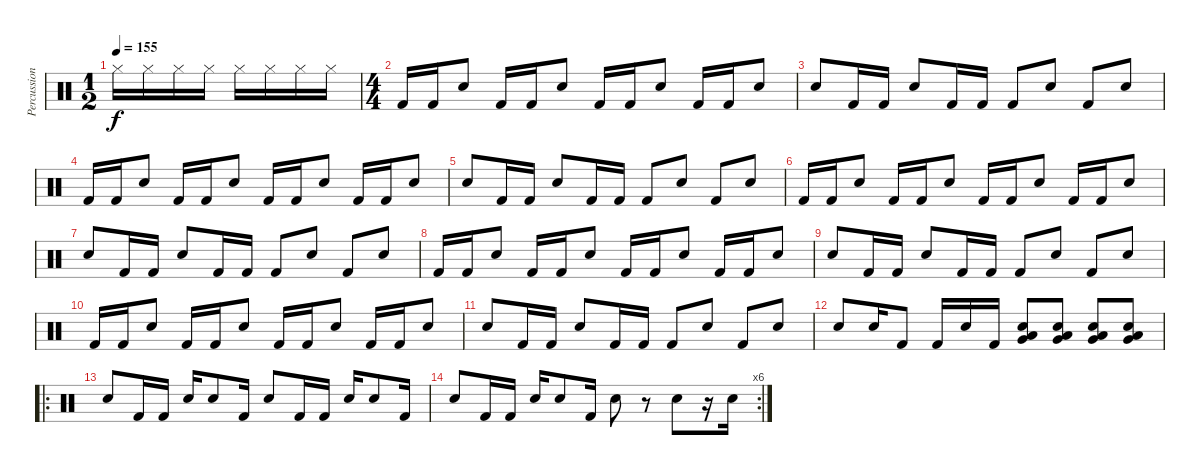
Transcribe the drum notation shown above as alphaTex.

\track ("Percussion" "Percussion") {instrument percussion}
\staff {score}
\articulation defaults
\ts (1 2)
\tempo 155
\clef neutral
\ks c "Hi-Hat (closed)".16{dy f} "Hi-Hat (closed)".16 "Hi-Hat (closed)".16 "Hi-Hat (closed)".16 "Hi-Hat (closed)".16 "Hi-Hat (closed)".16 "Hi-Hat (closed)".16 "Hi-Hat (closed)".16
|
\ts (4 4)
"Kick (hit) 2".16 "Kick (hit) 2".16 "Snare (hit) 2".8 "Kick (hit) 2".16 "Kick (hit) 2".16 "Snare (hit) 2".8 "Kick (hit) 2".16 "Kick (hit) 2".16 "Snare (hit) 2".8 "Kick (hit) 2".16 "Kick (hit) 2".16 "Snare (hit) 2".8 |
"Snare (hit) 2".8 "Kick (hit) 2".16 "Kick (hit) 2".16 "Snare (hit) 2".8 "Kick (hit) 2".16 "Kick (hit) 2".16 "Kick (hit) 2".8 "Snare (hit) 2".8 "Kick (hit) 2".8 "Snare (hit) 2".8 |
"Kick (hit) 2".16 "Kick (hit) 2".16 "Snare (hit) 2".8 "Kick (hit) 2".16 "Kick (hit) 2".16 "Snare (hit) 2".8 "Kick (hit) 2".16 "Kick (hit) 2".16 "Snare (hit) 2".8 "Kick (hit) 2".16 "Kick (hit) 2".16 "Snare (hit) 2".8 |
"Snare (hit) 2".8 "Kick (hit) 2".16 "Kick (hit) 2".16 "Snare (hit) 2".8 "Kick (hit) 2".16 "Kick (hit) 2".16 "Kick (hit) 2".8 "Snare (hit) 2".8 "Kick (hit) 2".8 "Snare (hit) 2".8 |
"Kick (hit) 2".16 "Kick (hit) 2".16 "Snare (hit) 2".8 "Kick (hit) 2".16 "Kick (hit) 2".16 "Snare (hit) 2".8 "Kick (hit) 2".16 "Kick (hit) 2".16 "Snare (hit) 2".8 "Kick (hit) 2".16 "Kick (hit) 2".16 "Snare (hit) 2".8 |
"Snare (hit) 2".8 "Kick (hit) 2".16 "Kick (hit) 2".16 "Snare (hit) 2".8 "Kick (hit) 2".16 "Kick (hit) 2".16 "Kick (hit) 2".8 "Snare (hit) 2".8 "Kick (hit) 2".8 "Snare (hit) 2".8 |
"Kick (hit) 2".16 "Kick (hit) 2".16 "Snare (hit) 2".8 "Kick (hit) 2".16 "Kick (hit) 2".16 "Snare (hit) 2".8 "Kick (hit) 2".16 "Kick (hit) 2".16 "Snare (hit) 2".8 "Kick (hit) 2".16 "Kick (hit) 2".16 "Snare (hit) 2".8 |
"Snare (hit) 2".8 "Kick (hit) 2".16 "Kick (hit) 2".16 "Snare (hit) 2".8 "Kick (hit) 2".16 "Kick (hit) 2".16 "Kick (hit) 2".8 "Snare (hit) 2".8 "Kick (hit) 2".8 "Snare (hit) 2".8 |
"Kick (hit) 2".16 "Kick (hit) 2".16 "Snare (hit) 2".8 "Kick (hit) 2".16 "Kick (hit) 2".16 "Snare (hit) 2".8 "Kick (hit) 2".16 "Kick (hit) 2".16 "Snare (hit) 2".8 "Kick (hit) 2".16 "Kick (hit) 2".16 "Snare (hit) 2".8 |
"Snare (hit) 2".8 "Kick (hit) 2".16 "Kick (hit) 2".16 "Snare (hit) 2".8 "Kick (hit) 2".16 "Kick (hit) 2".16 "Kick (hit) 2".8 "Snare (hit) 2".8 "Kick (hit) 2".8 "Snare (hit) 2".8 |
"Snare (hit) 2".8 "Snare (hit) 2".16 "Kick (hit) 2".8 "Kick (hit) 2".16 "Snare (hit) 2".16 "Kick (hit) 2".16 ("Low Tom (hit)" "Very Low Tom (hit)" "Snare (hit) 2").8 ("Low Tom (hit)" "Very Low Tom (hit)" "Snare (hit) 2").8 ("Low Tom (hit)" "Very Low Tom (hit)" "Snare (hit) 2").8 ("Low Tom (hit)" "Very Low Tom (hit)" "Snare (hit) 2").8 |
\ro "Snare (hit) 2".8 "Kick (hit) 2".16 "Kick (hit) 2".16 "Snare (hit) 2".16 "Snare (hit) 2".8 "Kick (hit) 2".16 "Snare (hit) 2".8 "Kick (hit) 2".16 "Kick (hit) 2".16 "Snare (hit) 2".16 "Snare (hit) 2".8 "Kick (hit) 2".16
|
\rc 6 "Snare (hit) 2".8 "Kick (hit) 2".16 "Kick (hit) 2".16 "Snare (hit) 2".16 "Snare (hit) 2".8 "Kick (hit) 2".16 "Snare (hit) 2".8
r.8 "Snare (hit) 2".8 r.16 "Snare (hit) 2".16
